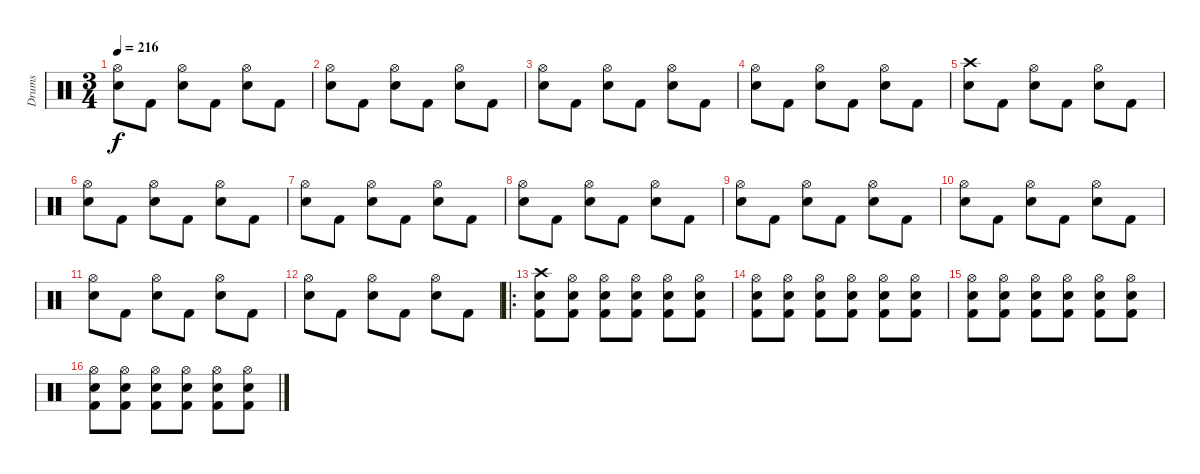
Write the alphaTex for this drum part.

\track ("Drums" "Drums") {instrument percussion}
\staff {score}
\articulation defaults
\ts (3 4)
\tempo 216
\clef neutral
\ks c
("Hi-Hat (open)" "Electric Snare (hit)").8{dy f} "Kick (hit) 2".8 ("Hi-Hat (open)" "Electric Snare (hit)").8 "Kick (hit) 2".8 ("Hi-Hat (open)" "Electric Snare (hit)").8 "Kick (hit) 2".8 |
("Hi-Hat (open)" "Electric Snare (hit)").8 "Kick (hit) 2".8 ("Hi-Hat (open)" "Electric Snare (hit)").8 "Kick (hit) 2".8 ("Hi-Hat (open)" "Electric Snare (hit)").8 "Kick (hit) 2".8 |
("Hi-Hat (open)" "Electric Snare (hit)").8 "Kick (hit) 2".8 ("Hi-Hat (open)" "Electric Snare (hit)").8 "Kick (hit) 2".8 ("Hi-Hat (open)" "Electric Snare (hit)").8 "Kick (hit) 2".8 |
("Hi-Hat (open)" "Electric Snare (hit)").8 "Kick (hit) 2".8 ("Hi-Hat (open)" "Electric Snare (hit)").8 "Kick (hit) 2".8 ("Hi-Hat (open)" "Electric Snare (hit)").8 "Kick (hit) 2".8 |
("Crash high (hit)" "Electric Snare (hit)").8 "Kick (hit) 2".8 ("Hi-Hat (open)" "Electric Snare (hit)").8 "Kick (hit) 2".8 ("Hi-Hat (open)" "Electric Snare (hit)").8 "Kick (hit) 2".8 |
("Hi-Hat (open)" "Electric Snare (hit)").8 "Kick (hit) 2".8 ("Hi-Hat (open)" "Electric Snare (hit)").8 "Kick (hit) 2".8 ("Hi-Hat (open)" "Electric Snare (hit)").8 "Kick (hit) 2".8 |
("Hi-Hat (open)" "Electric Snare (hit)").8 "Kick (hit) 2".8 ("Hi-Hat (open)" "Electric Snare (hit)").8 "Kick (hit) 2".8 ("Hi-Hat (open)" "Electric Snare (hit)").8 "Kick (hit) 2".8 |
("Hi-Hat (open)" "Electric Snare (hit)").8 "Kick (hit) 2".8 ("Hi-Hat (open)" "Electric Snare (hit)").8 "Kick (hit) 2".8 ("Hi-Hat (open)" "Electric Snare (hit)").8 "Kick (hit) 2".8 |
("Hi-Hat (open)" "Electric Snare (hit)").8 "Kick (hit) 2".8 ("Hi-Hat (open)" "Electric Snare (hit)").8 "Kick (hit) 2".8 ("Hi-Hat (open)" "Electric Snare (hit)").8 "Kick (hit) 2".8 |
("Hi-Hat (open)" "Electric Snare (hit)").8 "Kick (hit) 2".8 ("Hi-Hat (open)" "Electric Snare (hit)").8 "Kick (hit) 2".8 ("Hi-Hat (open)" "Electric Snare (hit)").8 "Kick (hit) 2".8 |
("Hi-Hat (open)" "Electric Snare (hit)").8 "Kick (hit) 2".8 ("Hi-Hat (open)" "Electric Snare (hit)").8 "Kick (hit) 2".8 ("Hi-Hat (open)" "Electric Snare (hit)").8 "Kick (hit) 2".8 |
("Hi-Hat (open)" "Electric Snare (hit)").8 "Kick (hit) 2".8 ("Hi-Hat (open)" "Electric Snare (hit)").8 "Kick (hit) 2".8 ("Hi-Hat (open)" "Electric Snare (hit)").8 "Kick (hit) 2".8 |
\ro
("Crash high (hit)" "Electric Snare (hit)" "Kick (hit) 2").8 ("Hi-Hat (open)" "Electric Snare (hit)" "Kick (hit) 2").8 ("Hi-Hat (open)" "Electric Snare (hit)" "Kick (hit) 2").8 ("Hi-Hat (open)" "Electric Snare (hit)" "Kick (hit) 2").8 ("Hi-Hat (open)" "Electric Snare (hit)" "Kick (hit) 2").8 ("Hi-Hat (open)" "Electric Snare (hit)" "Kick (hit) 2").8 |
("Hi-Hat (open)" "Electric Snare (hit)" "Kick (hit) 2").8 ("Hi-Hat (open)" "Electric Snare (hit)" "Kick (hit) 2").8 ("Hi-Hat (open)" "Electric Snare (hit)" "Kick (hit) 2").8 ("Hi-Hat (open)" "Electric Snare (hit)" "Kick (hit) 2").8 ("Hi-Hat (open)" "Electric Snare (hit)" "Kick (hit) 2").8 ("Hi-Hat (open)" "Electric Snare (hit)" "Kick (hit) 2").8 |
("Hi-Hat (open)" "Electric Snare (hit)" "Kick (hit) 2").8 ("Hi-Hat (open)" "Electric Snare (hit)" "Kick (hit) 2").8 ("Hi-Hat (open)" "Electric Snare (hit)" "Kick (hit) 2").8 ("Hi-Hat (open)" "Electric Snare (hit)" "Kick (hit) 2").8 ("Hi-Hat (open)" "Electric Snare (hit)" "Kick (hit) 2").8 ("Hi-Hat (open)" "Electric Snare (hit)" "Kick (hit) 2").8 |
("Hi-Hat (open)" "Electric Snare (hit)" "Kick (hit) 2").8 ("Hi-Hat (open)" "Electric Snare (hit)" "Kick (hit) 2").8 ("Hi-Hat (open)" "Electric Snare (hit)" "Kick (hit) 2").8 ("Hi-Hat (open)" "Electric Snare (hit)" "Kick (hit) 2").8 ("Hi-Hat (open)" "Electric Snare (hit)" "Kick (hit) 2").8 ("Hi-Hat (open)" "Electric Snare (hit)" "Kick (hit) 2").8
